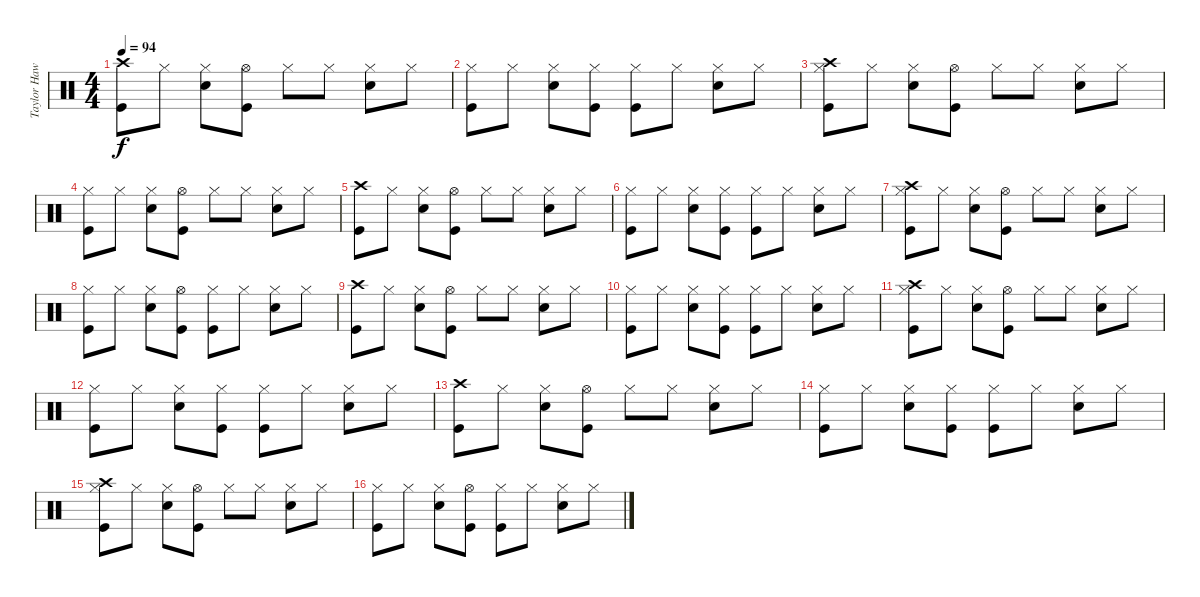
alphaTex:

\track ("Taylor Hawkins - Drums" "Taylor Haw") {instrument percussion}
\staff {score}
\articulation defaults
\ts (4 4)
\tempo 94
\clef neutral
\ks c
("Crash high (hit)" "Kick (hit)").8{dy f} "Hi-Hat (closed)".8 ("Hi-Hat (closed)" "Electric Snare (hit)").8 ("Hi-Hat (open)" "Kick (hit)").8 "Hi-Hat (closed)".8 "Hi-Hat (closed)".8 ("Hi-Hat (closed)" "Electric Snare (hit)").8 "Hi-Hat (closed)".8 |
("Hi-Hat (closed)" "Kick (hit)").8 "Hi-Hat (closed)".8 ("Hi-Hat (closed)" "Electric Snare (hit)").8 ("Hi-Hat (closed)" "Kick (hit)").8 ("Hi-Hat (closed)" "Kick (hit)").8 "Hi-Hat (closed)".8 ("Hi-Hat (closed)" "Electric Snare (hit)").8 "Hi-Hat (closed)".8 |
("Crash high (hit)" "Hi-Hat (closed)" "Kick (hit)").8 "Hi-Hat (closed)".8 ("Hi-Hat (closed)" "Electric Snare (hit)").8 ("Hi-Hat (open)" "Kick (hit)").8 "Hi-Hat (closed)".8 "Hi-Hat (closed)".8 ("Hi-Hat (closed)" "Electric Snare (hit)").8 "Hi-Hat (closed)".8 |
("Hi-Hat (closed)" "Kick (hit)").8 "Hi-Hat (closed)".8 ("Hi-Hat (closed)" "Electric Snare (hit)").8 ("Hi-Hat (open)" "Kick (hit)").8 "Hi-Hat (closed)".8 "Hi-Hat (closed)".8 ("Hi-Hat (closed)" "Electric Snare (hit)").8 "Hi-Hat (closed)".8 |
("Crash high (hit)" "Kick (hit)").8 "Hi-Hat (closed)".8 ("Hi-Hat (closed)" "Electric Snare (hit)").8 ("Hi-Hat (open)" "Kick (hit)").8 "Hi-Hat (closed)".8 "Hi-Hat (closed)".8 ("Hi-Hat (closed)" "Electric Snare (hit)").8 "Hi-Hat (closed)".8 |
("Hi-Hat (closed)" "Kick (hit)").8 "Hi-Hat (closed)".8 ("Hi-Hat (closed)" "Electric Snare (hit)").8 ("Hi-Hat (closed)" "Kick (hit)").8 ("Hi-Hat (closed)" "Kick (hit)").8 "Hi-Hat (closed)".8 ("Hi-Hat (closed)" "Electric Snare (hit)").8 "Hi-Hat (closed)".8 |
("Crash high (hit)" "Hi-Hat (closed)" "Kick (hit)").8 "Hi-Hat (closed)".8 ("Hi-Hat (closed)" "Electric Snare (hit)").8 ("Hi-Hat (open)" "Kick (hit)").8 "Hi-Hat (closed)".8 "Hi-Hat (closed)".8 ("Hi-Hat (closed)" "Electric Snare (hit)").8 "Hi-Hat (closed)".8 |
("Hi-Hat (closed)" "Kick (hit)").8 "Hi-Hat (closed)".8 ("Hi-Hat (closed)" "Electric Snare (hit)").8 ("Hi-Hat (open)" "Kick (hit)").8 ("Hi-Hat (closed)" "Kick (hit)").8 "Hi-Hat (closed)".8 ("Hi-Hat (closed)" "Electric Snare (hit)").8 "Hi-Hat (closed)".8 |
("Crash high (hit)" "Kick (hit)").8 "Hi-Hat (closed)".8 ("Hi-Hat (closed)" "Electric Snare (hit)").8 ("Hi-Hat (open)" "Kick (hit)").8 "Hi-Hat (closed)".8 "Hi-Hat (closed)".8 ("Hi-Hat (closed)" "Electric Snare (hit)").8 "Hi-Hat (closed)".8 |
("Hi-Hat (closed)" "Kick (hit)").8 "Hi-Hat (closed)".8 ("Hi-Hat (closed)" "Electric Snare (hit)").8 ("Hi-Hat (closed)" "Kick (hit)").8 ("Hi-Hat (closed)" "Kick (hit)").8 "Hi-Hat (closed)".8 ("Hi-Hat (closed)" "Electric Snare (hit)").8 "Hi-Hat (closed)".8 |
("Crash high (hit)" "Hi-Hat (closed)" "Kick (hit)").8 "Hi-Hat (closed)".8 ("Hi-Hat (closed)" "Electric Snare (hit)").8 ("Hi-Hat (open)" "Kick (hit)").8 "Hi-Hat (closed)".8 "Hi-Hat (closed)".8 ("Hi-Hat (closed)" "Electric Snare (hit)").8 "Hi-Hat (closed)".8 |
("Hi-Hat (closed)" "Kick (hit)").8 "Hi-Hat (closed)".8 ("Hi-Hat (closed)" "Electric Snare (hit)").8 ("Hi-Hat (closed)" "Kick (hit)").8 ("Hi-Hat (closed)" "Kick (hit)").8 "Hi-Hat (closed)".8 ("Hi-Hat (closed)" "Electric Snare (hit)").8 "Hi-Hat (closed)".8 |
("Crash high (hit)" "Kick (hit)").8 "Hi-Hat (closed)".8 ("Hi-Hat (closed)" "Electric Snare (hit)").8 ("Hi-Hat (open)" "Kick (hit)").8 "Hi-Hat (closed)".8 "Hi-Hat (closed)".8 ("Hi-Hat (closed)" "Electric Snare (hit)").8 "Hi-Hat (closed)".8 |
("Hi-Hat (closed)" "Kick (hit)").8 "Hi-Hat (closed)".8 ("Hi-Hat (closed)" "Electric Snare (hit)").8 ("Hi-Hat (closed)" "Kick (hit)").8 ("Hi-Hat (closed)" "Kick (hit)").8 "Hi-Hat (closed)".8 ("Hi-Hat (closed)" "Electric Snare (hit)").8 "Hi-Hat (closed)".8 |
("Crash high (hit)" "Hi-Hat (closed)" "Kick (hit)").8 "Hi-Hat (closed)".8 ("Hi-Hat (closed)" "Electric Snare (hit)").8 ("Hi-Hat (open)" "Kick (hit)").8 "Hi-Hat (closed)".8 "Hi-Hat (closed)".8 ("Hi-Hat (closed)" "Electric Snare (hit)").8 "Hi-Hat (closed)".8 |
("Hi-Hat (closed)" "Kick (hit)").8 "Hi-Hat (closed)".8 ("Hi-Hat (closed)" "Electric Snare (hit)").8 ("Hi-Hat (open)" "Kick (hit)").8 ("Hi-Hat (closed)" "Kick (hit)").8 "Hi-Hat (closed)".8 ("Hi-Hat (closed)" "Electric Snare (hit)").8 "Hi-Hat (closed)".8
